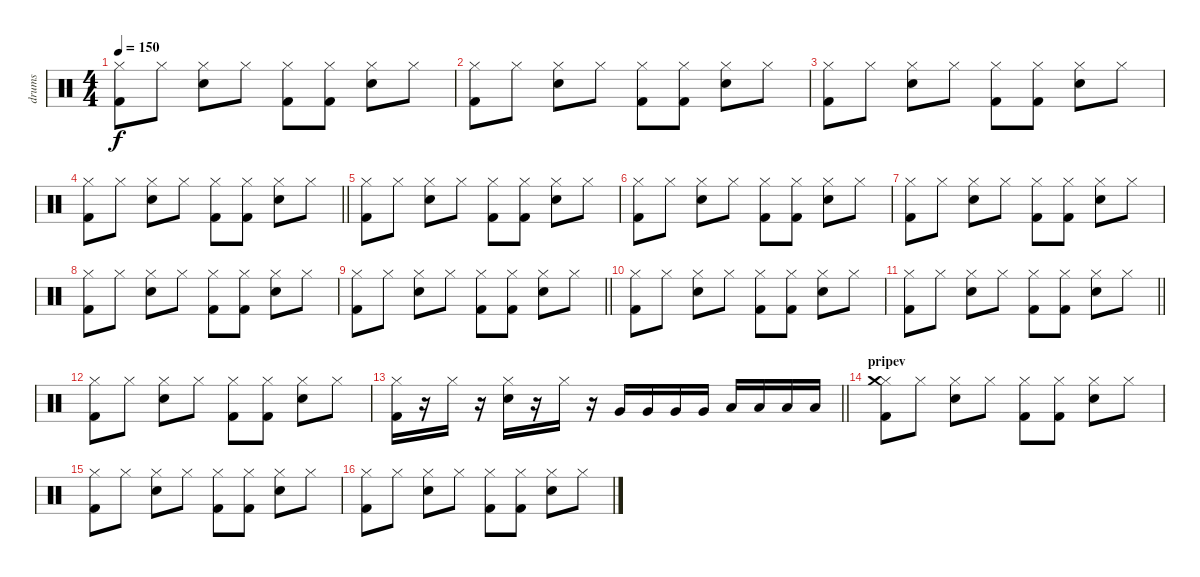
\track ("drums" "drums") {instrument percussion}
\staff {score}
\articulation defaults
\ts (4 4)
\tempo 150
\clef neutral
\ks c
("Kick (hit) 2" "Hi-Hat (closed)").8{dy f} "Hi-Hat (closed)".8 ("Snare (hit) 2" "Hi-Hat (closed)").8 "Hi-Hat (closed)".8 ("Kick (hit) 2" "Hi-Hat (closed)").8 ("Kick (hit) 2" "Hi-Hat (closed)").8 ("Snare (hit) 2" "Hi-Hat (closed)").8 "Hi-Hat (closed)".8 |
("Kick (hit) 2" "Hi-Hat (closed)").8 "Hi-Hat (closed)".8 ("Snare (hit) 2" "Hi-Hat (closed)").8 "Hi-Hat (closed)".8 ("Kick (hit) 2" "Hi-Hat (closed)").8 ("Kick (hit) 2" "Hi-Hat (closed)").8 ("Snare (hit) 2" "Hi-Hat (closed)").8 "Hi-Hat (closed)".8 |
("Kick (hit) 2" "Hi-Hat (closed)").8 "Hi-Hat (closed)".8 ("Snare (hit) 2" "Hi-Hat (closed)").8 "Hi-Hat (closed)".8 ("Kick (hit) 2" "Hi-Hat (closed)").8 ("Kick (hit) 2" "Hi-Hat (closed)").8 ("Snare (hit) 2" "Hi-Hat (closed)").8 "Hi-Hat (closed)".8 |
\barLineRight lightlight
("Kick (hit) 2" "Hi-Hat (closed)").8 "Hi-Hat (closed)".8 ("Snare (hit) 2" "Hi-Hat (closed)").8 "Hi-Hat (closed)".8 ("Kick (hit) 2" "Hi-Hat (closed)").8 ("Kick (hit) 2" "Hi-Hat (closed)").8 ("Snare (hit) 2" "Hi-Hat (closed)").8 "Hi-Hat (closed)".8 |
("Kick (hit) 2" "Hi-Hat (closed)").8 "Hi-Hat (closed)".8 ("Snare (hit) 2" "Hi-Hat (closed)").8 "Hi-Hat (closed)".8 ("Kick (hit) 2" "Hi-Hat (closed)").8 ("Kick (hit) 2" "Hi-Hat (closed)").8 ("Snare (hit) 2" "Hi-Hat (closed)").8 "Hi-Hat (closed)".8 |
("Kick (hit) 2" "Hi-Hat (closed)").8 "Hi-Hat (closed)".8 ("Snare (hit) 2" "Hi-Hat (closed)").8 "Hi-Hat (closed)".8 ("Kick (hit) 2" "Hi-Hat (closed)").8 ("Kick (hit) 2" "Hi-Hat (closed)").8 ("Snare (hit) 2" "Hi-Hat (closed)").8 "Hi-Hat (closed)".8 |
("Kick (hit) 2" "Hi-Hat (closed)").8 "Hi-Hat (closed)".8 ("Snare (hit) 2" "Hi-Hat (closed)").8 "Hi-Hat (closed)".8 ("Kick (hit) 2" "Hi-Hat (closed)").8 ("Kick (hit) 2" "Hi-Hat (closed)").8 ("Snare (hit) 2" "Hi-Hat (closed)").8 "Hi-Hat (closed)".8 |
("Kick (hit) 2" "Hi-Hat (closed)").8 "Hi-Hat (closed)".8 ("Snare (hit) 2" "Hi-Hat (closed)").8 "Hi-Hat (closed)".8 ("Kick (hit) 2" "Hi-Hat (closed)").8 ("Kick (hit) 2" "Hi-Hat (closed)").8 ("Snare (hit) 2" "Hi-Hat (closed)").8 "Hi-Hat (closed)".8 |
\barLineRight lightlight
("Kick (hit) 2" "Hi-Hat (closed)").8 "Hi-Hat (closed)".8 ("Snare (hit) 2" "Hi-Hat (closed)").8 "Hi-Hat (closed)".8 ("Kick (hit) 2" "Hi-Hat (closed)").8 ("Kick (hit) 2" "Hi-Hat (closed)").8 ("Snare (hit) 2" "Hi-Hat (closed)").8 "Hi-Hat (closed)".8 |
("Kick (hit) 2" "Hi-Hat (closed)").8 "Hi-Hat (closed)".8 ("Snare (hit) 2" "Hi-Hat (closed)").8 "Hi-Hat (closed)".8 ("Kick (hit) 2" "Hi-Hat (closed)").8 ("Kick (hit) 2" "Hi-Hat (closed)").8 ("Snare (hit) 2" "Hi-Hat (closed)").8 "Hi-Hat (closed)".8 |
\barLineRight lightlight
("Kick (hit) 2" "Hi-Hat (closed)").8 "Hi-Hat (closed)".8 ("Snare (hit) 2" "Hi-Hat (closed)").8 "Hi-Hat (closed)".8 ("Kick (hit) 2" "Hi-Hat (closed)").8 ("Kick (hit) 2" "Hi-Hat (closed)").8 ("Snare (hit) 2" "Hi-Hat (closed)").8 "Hi-Hat (closed)".8 |
("Kick (hit) 2" "Hi-Hat (closed)").8 "Hi-Hat (closed)".8 ("Snare (hit) 2" "Hi-Hat (closed)").8 "Hi-Hat (closed)".8 ("Kick (hit) 2" "Hi-Hat (closed)").8 ("Kick (hit) 2" "Hi-Hat (closed)").8 ("Snare (hit) 2" "Hi-Hat (closed)").8 "Hi-Hat (closed)".8 |
\barLineRight lightlight
("Kick (hit) 2" "Hi-Hat (closed)").16 r.16 "Hi-Hat (closed)".16 r.16 ("Snare (hit) 2" "Hi-Hat (closed)").16 r.16 "Hi-Hat (closed)".16 r.16 "Very Low Tom (hit)".16 "Very Low Tom (hit)".16 "Very Low Tom (hit)".16 "Very Low Tom (hit)".16 "Low Floor Tom (hit)".16 "Low Floor Tom (hit)".16 "Low Floor Tom (hit)".16 "Low Floor Tom (hit)".16 |
\section ("" "pripev")
("Kick (hit) 2" "Hi-Hat (closed)" "Crash medium (hit)").8 "Hi-Hat (closed)".8 ("Snare (hit) 2" "Hi-Hat (closed)").8 "Hi-Hat (closed)".8 ("Kick (hit) 2" "Hi-Hat (closed)").8 ("Kick (hit) 2" "Hi-Hat (closed)").8 ("Snare (hit) 2" "Hi-Hat (closed)").8 "Hi-Hat (closed)".8 |
("Kick (hit) 2" "Hi-Hat (closed)").8 "Hi-Hat (closed)".8 ("Snare (hit) 2" "Hi-Hat (closed)").8 "Hi-Hat (closed)".8 ("Kick (hit) 2" "Hi-Hat (closed)").8 ("Kick (hit) 2" "Hi-Hat (closed)").8 ("Snare (hit) 2" "Hi-Hat (closed)").8 "Hi-Hat (closed)".8 |
("Kick (hit) 2" "Hi-Hat (closed)").8 "Hi-Hat (closed)".8 ("Snare (hit) 2" "Hi-Hat (closed)").8 "Hi-Hat (closed)".8 ("Kick (hit) 2" "Hi-Hat (closed)").8 ("Kick (hit) 2" "Hi-Hat (closed)").8 ("Snare (hit) 2" "Hi-Hat (closed)").8 "Hi-Hat (closed)".8
